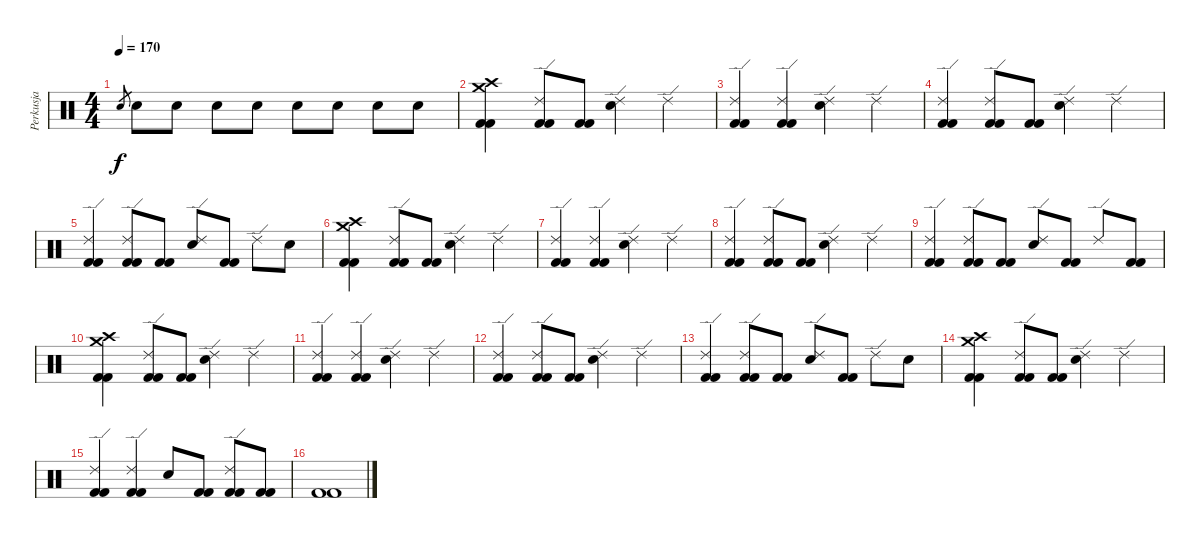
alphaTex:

\track ("Perkusja" "Perkusja") {instrument percussion}
\staff {score}
\articulation defaults
\ts (4 4)
\tempo 170
\clef neutral
\ks c "Electric Snare (hit)".8{gr dy f} "Electric Snare (hit)".8 "Electric Snare (hit)".8 "Electric Snare (hit)".8 "Electric Snare (hit)".8 "Electric Snare (hit)".8 "Electric Snare (hit)".8 "Electric Snare (hit)".8 "Electric Snare (hit)".8
|
("Crash high (hit)" "Crash medium (hit)" "Kick (hit) 2" "Kick (hit) 2").4 ("Ride (edge) 2" "Kick (hit) 2" "Kick (hit) 2").8 ("Kick (hit) 2" "Kick (hit) 2").8 ("Ride (edge) 2" "Electric Snare (hit)").4 "Ride (edge) 2".4 |
("Ride (edge) 2" "Kick (hit) 2" "Kick (hit) 2").4 ("Ride (edge) 2" "Kick (hit) 2" "Kick (hit) 2").4 ("Ride (edge) 2" "Electric Snare (hit)").4 "Ride (edge) 2".4 |
("Ride (edge) 2" "Kick (hit) 2" "Kick (hit) 2").4 ("Ride (edge) 2" "Kick (hit) 2" "Kick (hit) 2").8 ("Kick (hit) 2" "Kick (hit) 2").8 ("Ride (edge) 2" "Electric Snare (hit)").4 "Ride (edge) 2".4 |
("Ride (edge) 2" "Kick (hit) 2" "Kick (hit) 2").4 ("Ride (edge) 2" "Kick (hit) 2" "Kick (hit) 2").8 ("Kick (hit) 2" "Kick (hit) 2").8 ("Ride (edge) 2" "Electric Snare (hit)").8 ("Kick (hit) 2" "Kick (hit) 2").8 "Ride (edge) 2".8 "Electric Snare (hit)".8 |
("Crash high (hit)" "Crash medium (hit)" "Kick (hit) 2" "Kick (hit) 2").4 ("Ride (edge) 2" "Kick (hit) 2" "Kick (hit) 2").8 ("Kick (hit) 2" "Kick (hit) 2").8 ("Ride (edge) 2" "Electric Snare (hit)").4 "Ride (edge) 2".4 |
("Ride (edge) 2" "Kick (hit) 2" "Kick (hit) 2").4 ("Ride (edge) 2" "Kick (hit) 2" "Kick (hit) 2").4 ("Ride (edge) 2" "Electric Snare (hit)").4 "Ride (edge) 2".4 |
("Ride (edge) 2" "Kick (hit) 2" "Kick (hit) 2").4 ("Ride (edge) 2" "Kick (hit) 2" "Kick (hit) 2").8 ("Kick (hit) 2" "Kick (hit) 2").8 ("Ride (edge) 2" "Electric Snare (hit)").4 "Ride (edge) 2".4 |
("Ride (edge) 2" "Kick (hit) 2" "Kick (hit) 2").4 ("Ride (edge) 2" "Kick (hit) 2" "Kick (hit) 2").8 ("Kick (hit) 2" "Kick (hit) 2").8 ("Ride (edge) 2" "Electric Snare (hit)").8 ("Kick (hit) 2" "Kick (hit) 2").8 "Ride (edge) 2".8 ("Kick (hit) 2" "Kick (hit) 2").8 |
("Crash high (hit)" "Crash medium (hit)" "Kick (hit) 2" "Kick (hit) 2").4 ("Ride (edge) 2" "Kick (hit) 2" "Kick (hit) 2").8 ("Kick (hit) 2" "Kick (hit) 2").8 ("Ride (edge) 2" "Electric Snare (hit)").4 "Ride (edge) 2".4 |
("Ride (edge) 2" "Kick (hit) 2" "Kick (hit) 2").4 ("Ride (edge) 2" "Kick (hit) 2" "Kick (hit) 2").4 ("Ride (edge) 2" "Electric Snare (hit)").4 "Ride (edge) 2".4 |
("Ride (edge) 2" "Kick (hit) 2" "Kick (hit) 2").4 ("Ride (edge) 2" "Kick (hit) 2" "Kick (hit) 2").8 ("Kick (hit) 2" "Kick (hit) 2").8 ("Ride (edge) 2" "Electric Snare (hit)").4 "Ride (edge) 2".4 |
("Ride (edge) 2" "Kick (hit) 2" "Kick (hit) 2").4 ("Ride (edge) 2" "Kick (hit) 2" "Kick (hit) 2").8 ("Kick (hit) 2" "Kick (hit) 2").8 ("Ride (edge) 2" "Electric Snare (hit)").8 ("Kick (hit) 2" "Kick (hit) 2").8 "Ride (edge) 2".8 "Electric Snare (hit)".8 |
("Crash high (hit)" "Crash medium (hit)" "Kick (hit) 2" "Kick (hit) 2").4 ("Ride (edge) 2" "Kick (hit) 2" "Kick (hit) 2").8 ("Kick (hit) 2" "Kick (hit) 2").8 ("Ride (edge) 2" "Electric Snare (hit)").4 "Ride (edge) 2".4 |
("Ride (edge) 2" "Kick (hit) 2" "Kick (hit) 2").4 ("Ride (edge) 2" "Kick (hit) 2" "Kick (hit) 2").4 "Electric Snare (hit)".8 ("Kick (hit) 2" "Kick (hit) 2").8 ("Ride (edge) 2" "Kick (hit) 2" "Kick (hit) 2").8 ("Kick (hit) 2" "Kick (hit) 2").8 |
("Kick (hit) 2" "Kick (hit) 2").1
